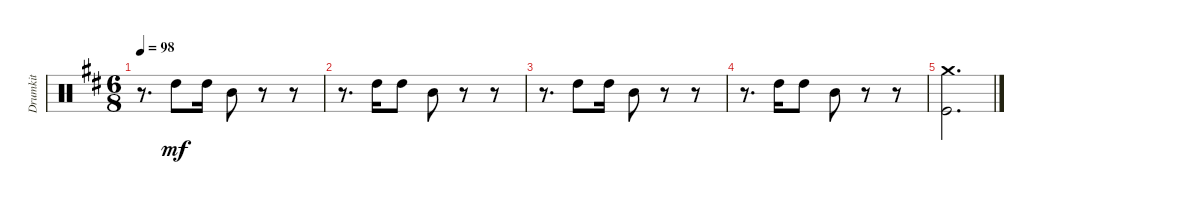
\track ("Drumkit" "Drumkit") {instrument percussion}
\staff {score}
\articulation defaults
\ts (6 8)
\tempo 98
\clef neutral
\ks d
r.8{d dy mf} "High Tom (hit)".8 "High Tom (hit)".16 "Mid Tom (hit)".8 r.8 r.8 |
r.8{d} "High Tom (hit)".16 "High Tom (hit)".8 "Mid Tom (hit)".8 r.8 r.8 |
r.8{d} "High Tom (hit)".8 "High Tom (hit)".16 "Mid Tom (hit)".8 r.8 r.8 |
r.8{d} "High Tom (hit)".16 "High Tom (hit)".8 "Mid Tom (hit)".8 r.8 r.8 |
("Crash medium (hit)" "Kick (hit)").2{d}
